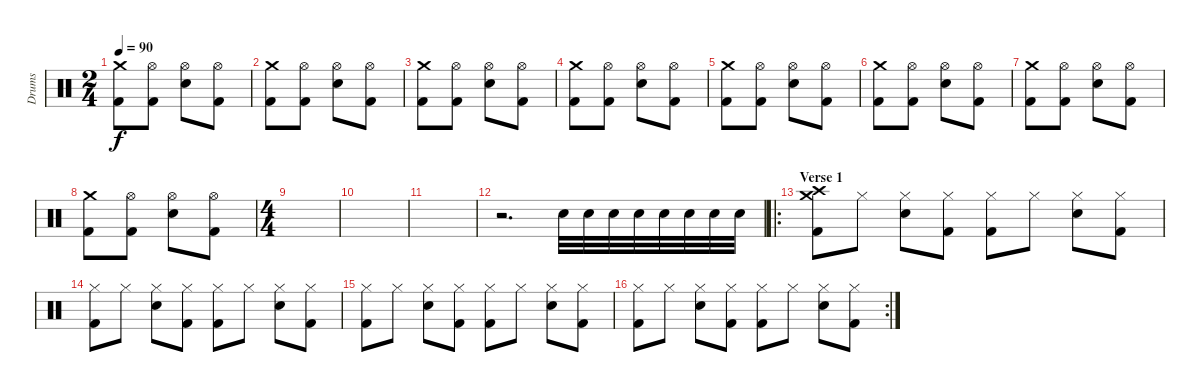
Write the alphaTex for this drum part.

\track ("Drums" "Drums") {instrument percussion}
\staff {score}
\articulation defaults
\ts (2 4)
\tempo 90
\clef neutral
\ks c
("Crash medium (hit)" "Kick (hit) 2").8{dy f} ("Hi-Hat (open)" "Kick (hit) 2").8 ("Hi-Hat (open)" "Snare (hit) 2").8 ("Hi-Hat (open)" "Kick (hit) 2").8 |
("Crash medium (hit)" "Kick (hit) 2").8 ("Hi-Hat (open)" "Kick (hit) 2").8 ("Hi-Hat (open)" "Snare (hit) 2").8 ("Hi-Hat (open)" "Kick (hit) 2").8 |
("Crash medium (hit)" "Kick (hit) 2").8 ("Hi-Hat (open)" "Kick (hit) 2").8 ("Hi-Hat (open)" "Snare (hit) 2").8 ("Hi-Hat (open)" "Kick (hit) 2").8 |
("Crash medium (hit)" "Kick (hit) 2").8 ("Hi-Hat (open)" "Kick (hit) 2").8 ("Hi-Hat (open)" "Snare (hit) 2").8 ("Hi-Hat (open)" "Kick (hit) 2").8 |
("Crash medium (hit)" "Kick (hit) 2").8 ("Hi-Hat (open)" "Kick (hit) 2").8 ("Hi-Hat (open)" "Snare (hit) 2").8 ("Hi-Hat (open)" "Kick (hit) 2").8 |
("Crash medium (hit)" "Kick (hit) 2").8 ("Hi-Hat (open)" "Kick (hit) 2").8 ("Hi-Hat (open)" "Snare (hit) 2").8 ("Hi-Hat (open)" "Kick (hit) 2").8 |
("Crash medium (hit)" "Kick (hit) 2").8 ("Hi-Hat (open)" "Kick (hit) 2").8 ("Hi-Hat (open)" "Snare (hit) 2").8 ("Hi-Hat (open)" "Kick (hit) 2").8 |
("Crash medium (hit)" "Kick (hit) 2").8 ("Hi-Hat (open)" "Kick (hit) 2").8 ("Hi-Hat (open)" "Snare (hit) 2").8 ("Hi-Hat (open)" "Kick (hit) 2").8 |
\ts (4 4)
|
|
|
r.2{d} "Snare (hit) 2".32 "Snare (hit) 2".32 "Snare (hit) 2".32 "Snare (hit) 2".32 "Snare (hit) 2".32 "Snare (hit) 2".32 "Snare (hit) 2".32 "Snare (hit) 2".32 |
\ro
\section ("" "Verse 1")
("Crash high (hit)" "Crash medium (hit)" "Kick (hit) 2").8 "Hi-Hat (closed)".8 ("Hi-Hat (closed)" "Snare (hit) 2").8 ("Hi-Hat (closed)" "Kick (hit) 2").8 ("Hi-Hat (closed)" "Kick (hit) 2").8 "Hi-Hat (closed)".8 ("Hi-Hat (closed)" "Snare (hit) 2").8 ("Hi-Hat (closed)" "Kick (hit) 2").8 |
("Hi-Hat (closed)" "Kick (hit) 2").8 "Hi-Hat (closed)".8 ("Hi-Hat (closed)" "Snare (hit) 2").8 ("Hi-Hat (closed)" "Kick (hit) 2").8 ("Hi-Hat (closed)" "Kick (hit) 2").8 "Hi-Hat (closed)".8 ("Hi-Hat (closed)" "Snare (hit) 2").8 ("Hi-Hat (closed)" "Kick (hit) 2").8 |
("Hi-Hat (closed)" "Kick (hit) 2").8 "Hi-Hat (closed)".8 ("Hi-Hat (closed)" "Snare (hit) 2").8 ("Hi-Hat (closed)" "Kick (hit) 2").8 ("Hi-Hat (closed)" "Kick (hit) 2").8 "Hi-Hat (closed)".8 ("Hi-Hat (closed)" "Snare (hit) 2").8 ("Hi-Hat (closed)" "Kick (hit) 2").8 |
\rc 2
("Hi-Hat (closed)" "Kick (hit) 2").8 "Hi-Hat (closed)".8 ("Hi-Hat (closed)" "Snare (hit) 2").8 ("Hi-Hat (closed)" "Kick (hit) 2").8 ("Hi-Hat (closed)" "Kick (hit) 2").8 "Hi-Hat (closed)".8 ("Hi-Hat (closed)" "Snare (hit) 2").8 ("Hi-Hat (closed)" "Kick (hit) 2").8
